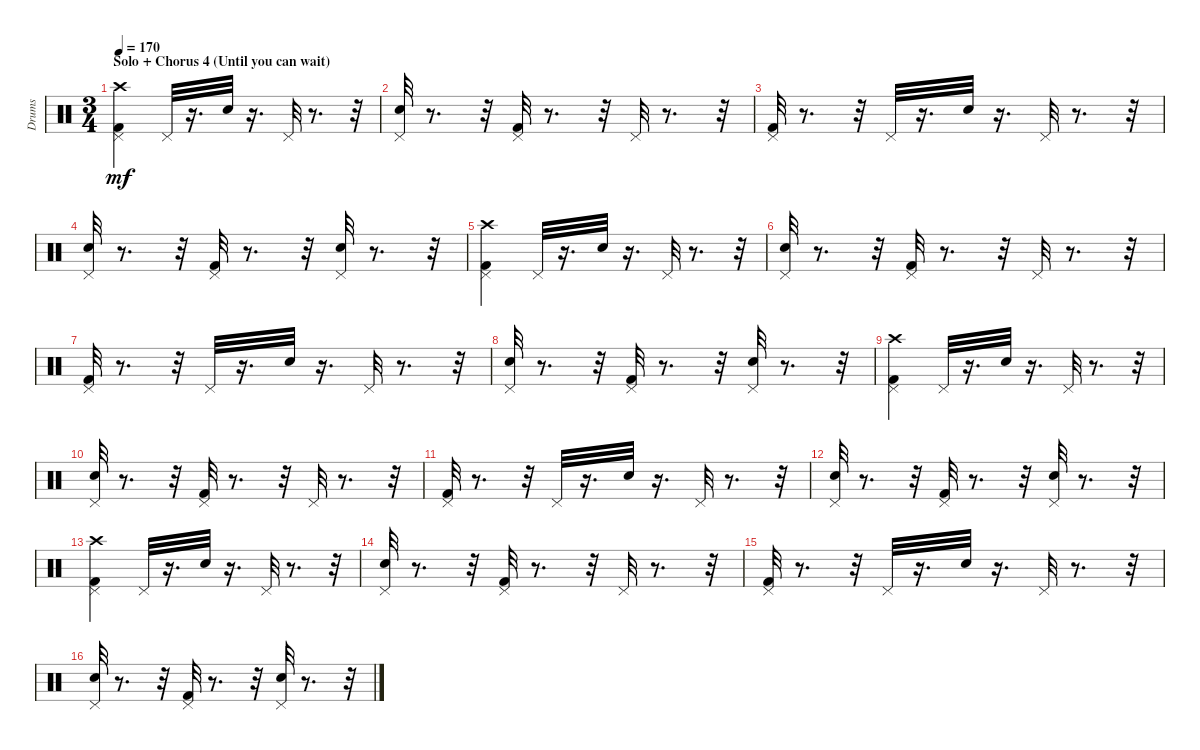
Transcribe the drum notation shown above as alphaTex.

\track ("Drums" "Drums") {instrument percussion}
\staff {score}
\articulation defaults
\ts (3 4)
\section ("" "Solo + Chorus 4 (Until you can wait)")
\tempo 170
\clef neutral
\ks c
("Kick (hit) 2" "Pedal Hi-Hat (hit)" "Crash high (hit)").4{dy mf} "Pedal Hi-Hat (hit)".32 r.16{d} "Snare (hit) 2".32 r.16{d} "Pedal Hi-Hat (hit)".32 r.8{d} r.32 |
("Snare (hit) 2" "Pedal Hi-Hat (hit)").32 r.8{d} r.32 ("Kick (hit) 2" "Pedal Hi-Hat (hit)").32 r.8{d} r.32 "Pedal Hi-Hat (hit)".32 r.8{d} r.32 |
("Kick (hit) 2" "Pedal Hi-Hat (hit)").32 r.8{d} r.32 "Pedal Hi-Hat (hit)".32 r.16{d} "Snare (hit) 2".32 r.16{d} "Pedal Hi-Hat (hit)".32 r.8{d} r.32 |
("Snare (hit) 2" "Pedal Hi-Hat (hit)").32 r.8{d} r.32 ("Kick (hit) 2" "Pedal Hi-Hat (hit)").32 r.8{d} r.32 ("Snare (hit) 2" "Pedal Hi-Hat (hit)").32 r.8{d} r.32 |
("Kick (hit) 2" "Pedal Hi-Hat (hit)" "Crash high (hit)").4 "Pedal Hi-Hat (hit)".32 r.16{d} "Snare (hit) 2".32 r.16{d} "Pedal Hi-Hat (hit)".32 r.8{d} r.32 |
("Snare (hit) 2" "Pedal Hi-Hat (hit)").32 r.8{d} r.32 ("Kick (hit) 2" "Pedal Hi-Hat (hit)").32 r.8{d} r.32 "Pedal Hi-Hat (hit)".32 r.8{d} r.32 |
("Kick (hit) 2" "Pedal Hi-Hat (hit)").32 r.8{d} r.32 "Pedal Hi-Hat (hit)".32 r.16{d} "Snare (hit) 2".32 r.16{d} "Pedal Hi-Hat (hit)".32 r.8{d} r.32 |
("Snare (hit) 2" "Pedal Hi-Hat (hit)").32 r.8{d} r.32 ("Kick (hit) 2" "Pedal Hi-Hat (hit)").32 r.8{d} r.32 ("Snare (hit) 2" "Pedal Hi-Hat (hit)").32 r.8{d} r.32 |
("Kick (hit) 2" "Pedal Hi-Hat (hit)" "Crash high (hit)").4 "Pedal Hi-Hat (hit)".32 r.16{d} "Snare (hit) 2".32 r.16{d} "Pedal Hi-Hat (hit)".32 r.8{d} r.32 |
("Snare (hit) 2" "Pedal Hi-Hat (hit)").32 r.8{d} r.32 ("Kick (hit) 2" "Pedal Hi-Hat (hit)").32 r.8{d} r.32 "Pedal Hi-Hat (hit)".32 r.8{d} r.32 |
("Kick (hit) 2" "Pedal Hi-Hat (hit)").32 r.8{d} r.32 "Pedal Hi-Hat (hit)".32 r.16{d} "Snare (hit) 2".32 r.16{d} "Pedal Hi-Hat (hit)".32 r.8{d} r.32 |
("Snare (hit) 2" "Pedal Hi-Hat (hit)").32 r.8{d} r.32 ("Kick (hit) 2" "Pedal Hi-Hat (hit)").32 r.8{d} r.32 ("Snare (hit) 2" "Pedal Hi-Hat (hit)").32 r.8{d} r.32 |
("Kick (hit) 2" "Pedal Hi-Hat (hit)" "Crash high (hit)").4 "Pedal Hi-Hat (hit)".32 r.16{d} "Snare (hit) 2".32 r.16{d} "Pedal Hi-Hat (hit)".32 r.8{d} r.32 |
("Snare (hit) 2" "Pedal Hi-Hat (hit)").32 r.8{d} r.32 ("Kick (hit) 2" "Pedal Hi-Hat (hit)").32 r.8{d} r.32 "Pedal Hi-Hat (hit)".32 r.8{d} r.32 |
("Kick (hit) 2" "Pedal Hi-Hat (hit)").32 r.8{d} r.32 "Pedal Hi-Hat (hit)".32 r.16{d} "Snare (hit) 2".32 r.16{d} "Pedal Hi-Hat (hit)".32 r.8{d} r.32 |
("Snare (hit) 2" "Pedal Hi-Hat (hit)").32 r.8{d} r.32 ("Kick (hit) 2" "Pedal Hi-Hat (hit)").32 r.8{d} r.32 ("Snare (hit) 2" "Pedal Hi-Hat (hit)").32 r.8{d} r.32
